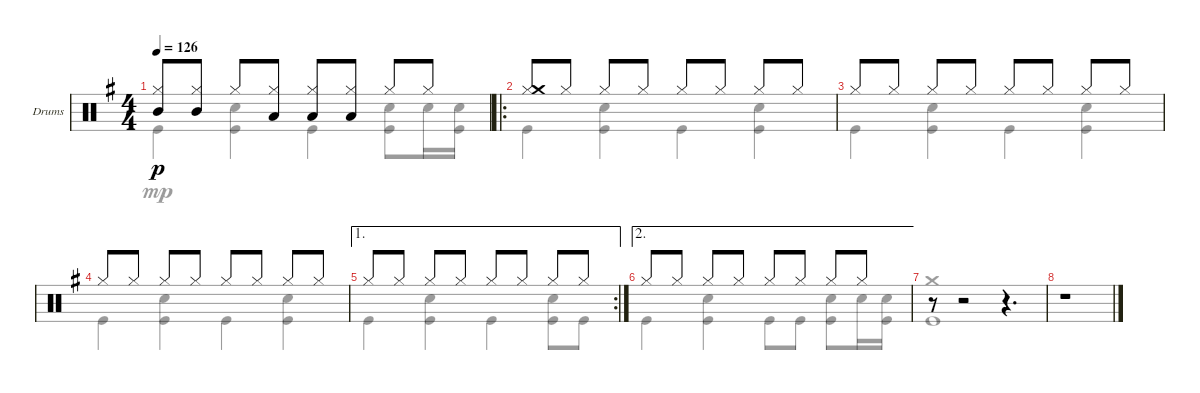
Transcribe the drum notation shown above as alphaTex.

\bracketExtendMode groupsimilarinstruments
\firstSystemTrackNameOrientation horizontal
\otherSystemsTrackNameOrientation horizontal
\track ("Ударные" "Drums") {instrument percussion}
\staff {score}
\articulation defaults
\voice
\ts (4 4)
\tempo 126
\clef neutral
\ks eminor
("Hi-Hat (closed)" "Mid Tom (hit)").8{dy p} ("Hi-Hat (closed)" "Mid Tom (hit)").8 "Hi-Hat (closed)".8 ("Hi-Hat (closed)" "Low Tom (hit)").8 ("Hi-Hat (closed)" "Low Tom (hit)").8 ("Hi-Hat (closed)" "Low Tom (hit)").8 "Hi-Hat (closed)".8 "Hi-Hat (closed)".8 |
\ro
("Hi-Hat (closed)" "Crash medium (hit)").8 "Hi-Hat (closed)".8 "Hi-Hat (closed)".8 "Hi-Hat (closed)".8 "Hi-Hat (closed)".8 "Hi-Hat (closed)".8 "Hi-Hat (closed)".8 "Hi-Hat (closed)".8 |
"Hi-Hat (closed)".8 "Hi-Hat (closed)".8 "Hi-Hat (closed)".8 "Hi-Hat (closed)".8 "Hi-Hat (closed)".8 "Hi-Hat (closed)".8 "Hi-Hat (closed)".8 "Hi-Hat (closed)".8 |
"Hi-Hat (closed)".8 "Hi-Hat (closed)".8 "Hi-Hat (closed)".8 "Hi-Hat (closed)".8 "Hi-Hat (closed)".8 "Hi-Hat (closed)".8 "Hi-Hat (closed)".8 "Hi-Hat (closed)".8 |
\ae 1
\rc 2 "Hi-Hat (closed)".8 "Hi-Hat (closed)".8 "Hi-Hat (closed)".8 "Hi-Hat (closed)".8 "Hi-Hat (closed)".8 "Hi-Hat (closed)".8 "Hi-Hat (closed)".8 "Hi-Hat (closed)".8
|
\ae 2 "Hi-Hat (closed)".8 "Hi-Hat (closed)".8 "Hi-Hat (closed)".8 "Hi-Hat (closed)".8 "Hi-Hat (closed)".8 "Hi-Hat (closed)".8 "Hi-Hat (closed)".8 "Hi-Hat (closed)".8
|
r.8 r.2 r.4{d} |
r.1
\voice
\clef neutral
\ottava regular
\simile none
\ks eminor "Kick (hit)".4{dy mp}
("Snare (hit) 2" "Kick (hit)").4 "Kick (hit)".4 ("Snare (hit) 2" "Kick (hit)").8 "Snare (hit) 2".16 ("Snare (hit) 2" "Kick (hit)").16 |
"Kick (hit)".4 ("Snare (hit) 2" "Kick (hit)").4 "Kick (hit)".4 ("Snare (hit) 2" "Kick (hit)").4 |
"Kick (hit)".4 ("Snare (hit) 2" "Kick (hit)").4 "Kick (hit)".4 ("Snare (hit) 2" "Kick (hit)").4 |
"Kick (hit)".4 ("Snare (hit) 2" "Kick (hit)").4 "Kick (hit)".4 ("Snare (hit) 2" "Kick (hit)").4 |
"Kick (hit)".4 ("Snare (hit) 2" "Kick (hit)").4 "Kick (hit)".4 ("Snare (hit) 2" "Kick (hit)").8 "Kick (hit)".8 |
"Kick (hit)".4 ("Snare (hit) 2" "Kick (hit)").4 "Kick (hit)".8 "Kick (hit)".8 ("Snare (hit) 2" "Kick (hit)").8 "Snare (hit) 2".16 ("Snare (hit) 2" "Kick (hit)").16 |
("Crash medium (hit)" "Kick (hit)").1 |
r.1
